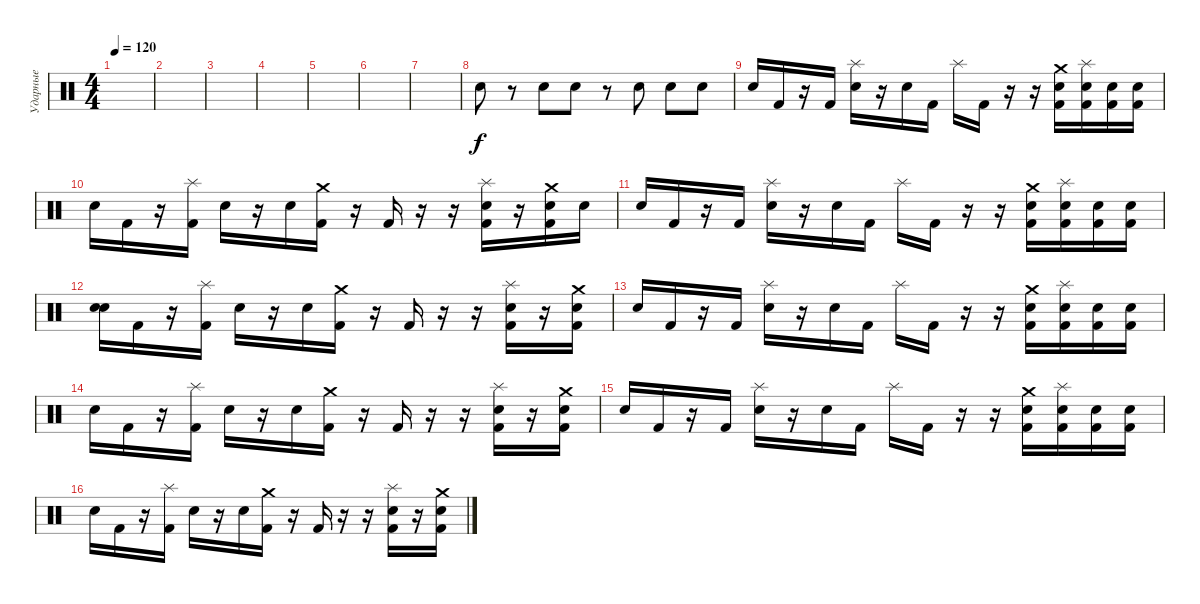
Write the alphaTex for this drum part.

\track ("Ударные" "Ударные") {instrument percussion}
\staff {score}
\articulation defaults
\ts (4 4)
\tempo 120
\clef neutral
\ks c
|
|
|
|
|
|
|
"Electric Snare (hit)".8 r.8 "Electric Snare (hit)".8 "Electric Snare (hit)".8 r.8 "Electric Snare (hit)".8 "Electric Snare (hit)".8 "Electric Snare (hit)".8 |
"Electric Snare (hit)".16 "Kick (hit) 2".16 r.16 "Kick (hit) 2".16 ("Splash (hit)" "Electric Snare (hit)").16 r.16 "Electric Snare (hit)".16 "Kick (hit) 2".16 "Splash (hit)".16 "Kick (hit) 2".16 r.16 r.16 ("Crash medium (hit)" "Electric Snare (hit)" "Kick (hit) 2").16 ("Splash (hit)" "Electric Snare (hit)" "Kick (hit) 2").16 ("Electric Snare (hit)" "Kick (hit) 2").16 ("Electric Snare (hit)" "Kick (hit) 2").16 |
"Electric Snare (hit)".16 "Kick (hit) 2".16 r.16 ("Splash (hit)" "Kick (hit) 2").16 "Electric Snare (hit)".16 r.16 "Electric Snare (hit)".16 ("Crash medium (hit)" "Kick (hit) 2").16 r.16 "Kick (hit) 2".16 r.16 r.16 ("Splash (hit)" "Electric Snare (hit)" "Kick (hit) 2").16 r.16 ("Crash medium (hit)" "Electric Snare (hit)" "Kick (hit) 2").16 "Snare (hit)".16 |
"Electric Snare (hit)".16 "Kick (hit) 2".16 r.16 "Kick (hit) 2".16 ("Splash (hit)" "Electric Snare (hit)").16 r.16 "Electric Snare (hit)".16 "Kick (hit) 2".16 "Splash (hit)".16 "Kick (hit) 2".16 r.16 r.16 ("Crash medium (hit)" "Electric Snare (hit)" "Kick (hit) 2").16 ("Splash (hit)" "Electric Snare (hit)" "Kick (hit) 2").16 ("Electric Snare (hit)" "Kick (hit) 2").16 ("Electric Snare (hit)" "Kick (hit) 2").16 |
("Snare (hit)" "Electric Snare (hit)").16 "Kick (hit) 2".16 r.16 ("Splash (hit)" "Kick (hit) 2").16 "Electric Snare (hit)".16 r.16 "Electric Snare (hit)".16 ("Crash medium (hit)" "Kick (hit) 2").16 r.16 "Kick (hit) 2".16 r.16 r.16 ("Splash (hit)" "Electric Snare (hit)" "Kick (hit) 2").16 r.16 ("Crash medium (hit)" "Electric Snare (hit)" "Kick (hit) 2").16 |
"Electric Snare (hit)".16 "Kick (hit) 2".16 r.16 "Kick (hit) 2".16 ("Splash (hit)" "Electric Snare (hit)").16 r.16 "Electric Snare (hit)".16 "Kick (hit) 2".16 "Splash (hit)".16 "Kick (hit) 2".16 r.16 r.16 ("Crash medium (hit)" "Electric Snare (hit)" "Kick (hit) 2").16 ("Splash (hit)" "Electric Snare (hit)" "Kick (hit) 2").16 ("Electric Snare (hit)" "Kick (hit) 2").16 ("Electric Snare (hit)" "Kick (hit) 2").16 |
"Electric Snare (hit)".16 "Kick (hit) 2".16 r.16 ("Splash (hit)" "Kick (hit) 2").16 "Electric Snare (hit)".16 r.16 "Electric Snare (hit)".16 ("Crash medium (hit)" "Kick (hit) 2").16 r.16 "Kick (hit) 2".16 r.16 r.16 ("Splash (hit)" "Electric Snare (hit)" "Kick (hit) 2").16 r.16 ("Crash medium (hit)" "Electric Snare (hit)" "Kick (hit) 2").16 |
"Electric Snare (hit)".16 "Kick (hit) 2".16 r.16 "Kick (hit) 2".16 ("Splash (hit)" "Electric Snare (hit)").16 r.16 "Electric Snare (hit)".16 "Kick (hit) 2".16 "Splash (hit)".16 "Kick (hit) 2".16 r.16 r.16 ("Crash medium (hit)" "Electric Snare (hit)" "Kick (hit) 2").16 ("Splash (hit)" "Electric Snare (hit)" "Kick (hit) 2").16 ("Electric Snare (hit)" "Kick (hit) 2").16 ("Electric Snare (hit)" "Kick (hit) 2").16 |
"Electric Snare (hit)".16 "Kick (hit) 2".16 r.16 ("Splash (hit)" "Kick (hit) 2").16 "Electric Snare (hit)".16 r.16 "Electric Snare (hit)".16 ("Crash medium (hit)" "Kick (hit) 2").16 r.16 "Kick (hit) 2".16 r.16 r.16 ("Splash (hit)" "Electric Snare (hit)" "Kick (hit) 2").16 r.16 ("Crash medium (hit)" "Electric Snare (hit)" "Kick (hit) 2").16
